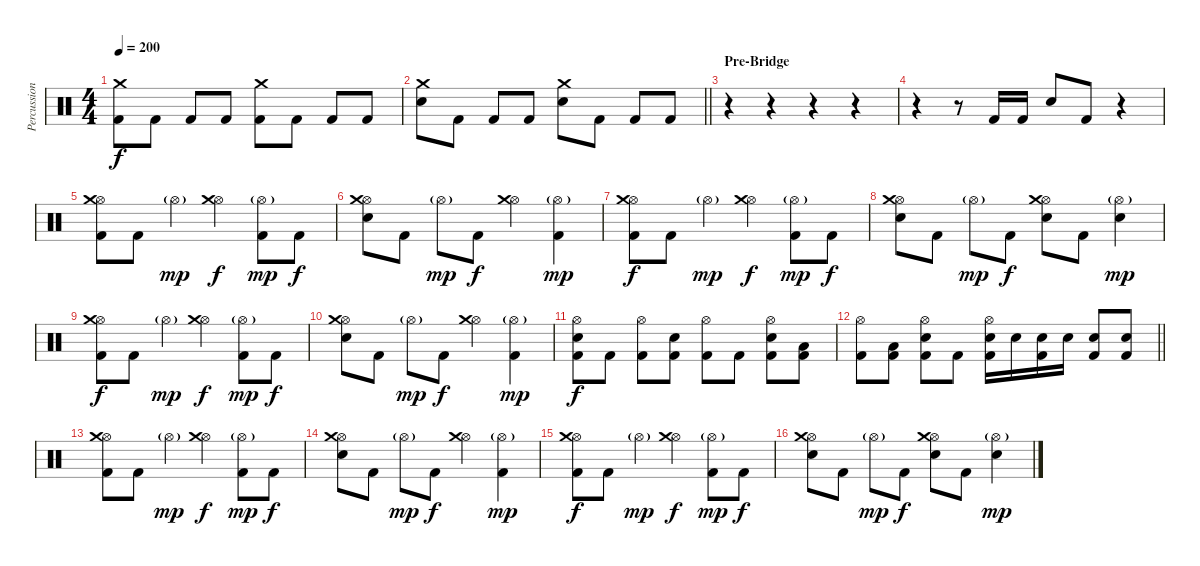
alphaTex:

\track ("Percussions" "Percussion") {instrument percussion}
\staff {score}
\articulation defaults
\ts (4 4)
\tempo 200
\clef neutral
\ks c
("Crash medium (hit)" "Kick (hit) 2").8{dy f} "Kick (hit) 2".8 "Kick (hit) 2".8 "Kick (hit) 2".8 ("Crash medium (hit)" "Kick (hit) 2").8 "Kick (hit) 2".8 "Kick (hit) 2".8 "Kick (hit) 2".8 |
\barLineRight lightlight
("Crash medium (hit)" "Electric Snare (hit)").8 "Kick (hit) 2".8 "Kick (hit) 2".8 "Kick (hit) 2".8 ("Crash medium (hit)" "Electric Snare (hit)").8 "Kick (hit) 2".8 "Kick (hit) 2".8 "Kick (hit) 2".8 |
\section ("" "Pre-Bridge")
r.4 r.4 r.4 r.4 |
r.4 r.8 "Kick (hit) 2".16 "Kick (hit) 2".16 "Electric Snare (hit)".8 "Kick (hit) 2".8 r.4 |
("Hi-Hat (open)" "Crash medium (hit)" "Kick (hit) 2").8 "Kick (hit) 2".8 "Hi-Hat (open)"{g}.4{dy mp} ("Hi-Hat (open)" "Crash medium (hit)").4{dy f} ("Hi-Hat (open)"{g} "Kick (hit) 2").8{dy mp} "Kick (hit) 2".8{dy f} |
("Hi-Hat (open)" "Crash medium (hit)" "Electric Snare (hit)").8 "Kick (hit) 2".8 "Hi-Hat (open)"{g}.8{dy mp} "Kick (hit) 2".8{dy f} ("Hi-Hat (open)" "Crash medium (hit)").4 ("Hi-Hat (open)"{g} "Kick (hit) 2").4{dy mp} |
("Hi-Hat (open)" "Crash medium (hit)" "Kick (hit) 2").8{dy f} "Kick (hit) 2".8 "Hi-Hat (open)"{g}.4{dy mp} ("Hi-Hat (open)" "Crash medium (hit)").4{dy f} ("Hi-Hat (open)"{g} "Kick (hit) 2").8{dy mp} "Kick (hit) 2".8{dy f} |
("Hi-Hat (open)" "Crash medium (hit)" "Electric Snare (hit)").8 "Kick (hit) 2".8 "Hi-Hat (open)"{g}.8{dy mp} "Kick (hit) 2".8{dy f} ("Hi-Hat (open)" "Crash medium (hit)" "Electric Snare (hit)").8 "Kick (hit) 2".8 ("Hi-Hat (open)"{g} "Electric Snare (hit)").4{dy mp} |
("Hi-Hat (open)" "Crash medium (hit)" "Kick (hit) 2").8{dy f} "Kick (hit) 2".8 "Hi-Hat (open)"{g}.4{dy mp} ("Hi-Hat (open)" "Crash medium (hit)").4{dy f} ("Hi-Hat (open)"{g} "Kick (hit) 2").8{dy mp} "Kick (hit) 2".8{dy f} |
("Hi-Hat (open)" "Crash medium (hit)" "Electric Snare (hit)").8 "Kick (hit) 2".8 "Hi-Hat (open)"{g}.8{dy mp} "Kick (hit) 2".8{dy f} ("Hi-Hat (open)" "Crash medium (hit)").4 ("Hi-Hat (open)"{g} "Kick (hit) 2").4{dy mp} |
("Hi-Hat (open)" "Electric Snare (hit)" "Kick (hit) 2").8{dy f} "Kick (hit) 2".8 ("Hi-Hat (open)" "Kick (hit) 2").8 ("Electric Snare (hit)" "Kick (hit) 2").8 ("Hi-Hat (open)" "Kick (hit) 2").8 "Kick (hit) 2".8 ("Hi-Hat (open)" "Electric Snare (hit)" "Kick (hit) 2").8 ("Low Tom (hit)" "Kick (hit) 2").8 |
\barLineRight lightlight
("Hi-Hat (open)" "Kick (hit) 2").8 ("Low Tom (hit)" "Kick (hit) 2").8 ("Hi-Hat (open)" "Electric Snare (hit)" "Kick (hit) 2").8 "Kick (hit) 2".8 ("Hi-Hat (open)" "Electric Snare (hit)" "Kick (hit) 2").16 "Electric Snare (hit)".16 ("Electric Snare (hit)" "Kick (hit) 2").16 "Electric Snare (hit)".16 ("Electric Snare (hit)" "Kick (hit) 2").8 ("Electric Snare (hit)" "Kick (hit) 2").8 |
("Hi-Hat (open)" "Crash medium (hit)" "Kick (hit) 2").8 "Kick (hit) 2".8 "Hi-Hat (open)"{g}.4{dy mp} ("Hi-Hat (open)" "Crash medium (hit)").4{dy f} ("Hi-Hat (open)"{g} "Kick (hit) 2").8{dy mp} "Kick (hit) 2".8{dy f} |
("Hi-Hat (open)" "Crash medium (hit)" "Electric Snare (hit)").8 "Kick (hit) 2".8 "Hi-Hat (open)"{g}.8{dy mp} "Kick (hit) 2".8{dy f} ("Hi-Hat (open)" "Crash medium (hit)").4 ("Hi-Hat (open)"{g} "Kick (hit) 2").4{dy mp} |
("Hi-Hat (open)" "Crash medium (hit)" "Kick (hit) 2").8{dy f} "Kick (hit) 2".8 "Hi-Hat (open)"{g}.4{dy mp} ("Hi-Hat (open)" "Crash medium (hit)").4{dy f} ("Hi-Hat (open)"{g} "Kick (hit) 2").8{dy mp} "Kick (hit) 2".8{dy f} |
("Hi-Hat (open)" "Crash medium (hit)" "Electric Snare (hit)").8 "Kick (hit) 2".8 "Hi-Hat (open)"{g}.8{dy mp} "Kick (hit) 2".8{dy f} ("Hi-Hat (open)" "Crash medium (hit)" "Electric Snare (hit)").8 "Kick (hit) 2".8 ("Hi-Hat (open)"{g} "Electric Snare (hit)").4{dy mp}
